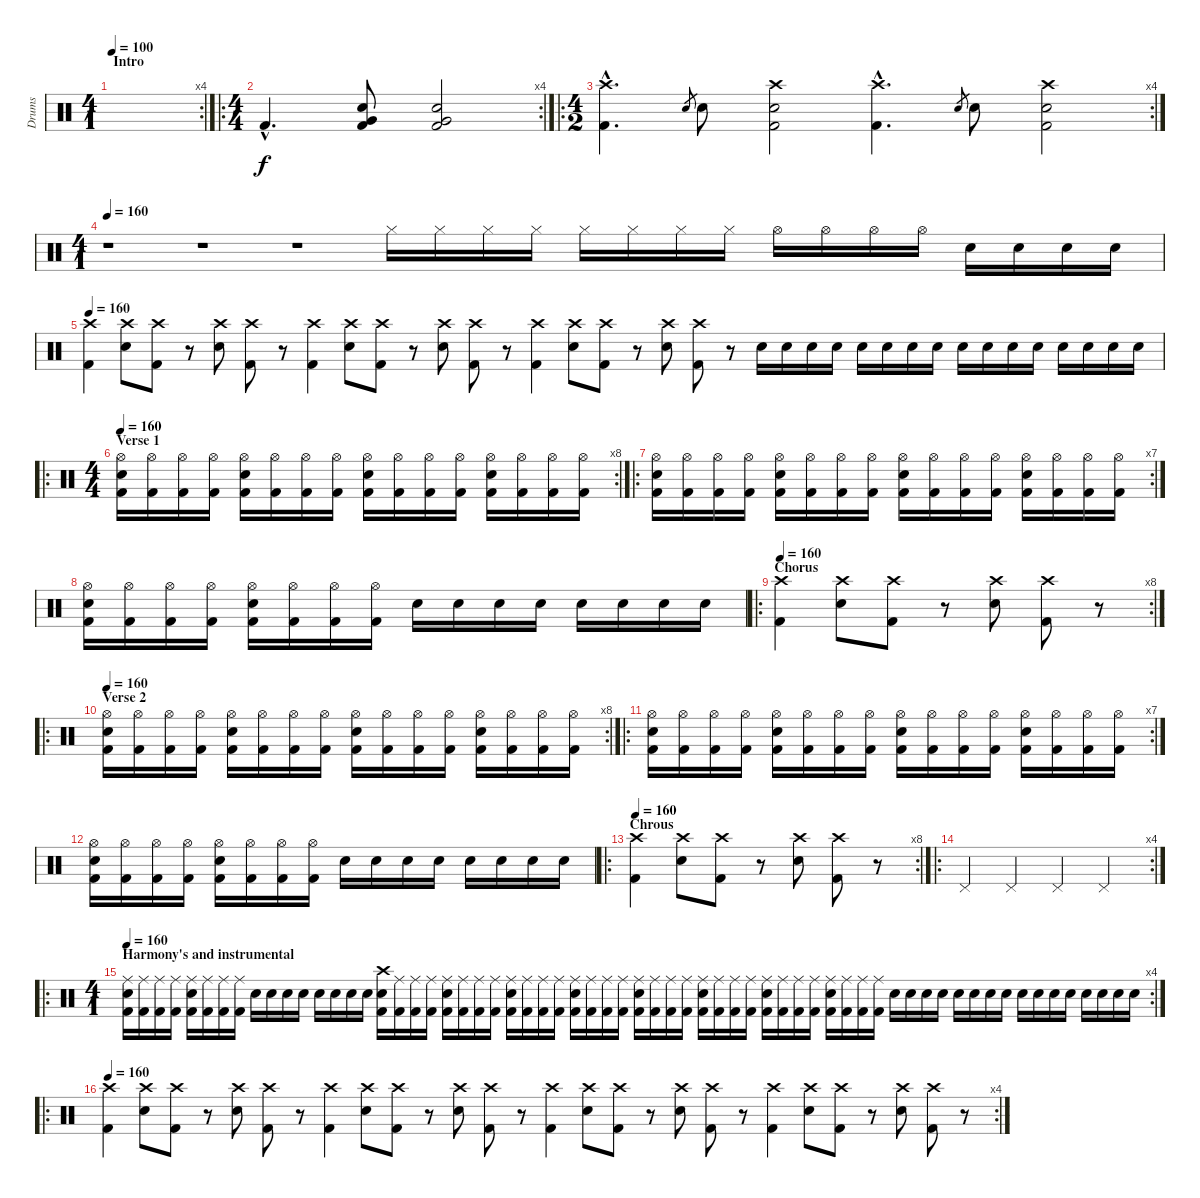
\track ("Drums" "Drums") {instrument percussion}
\staff {score}
\articulation defaults
\rc 4
\ts (4 1)
\section ("" "Intro")
\tempo 100
\clef neutral
\ks c
|
\ro
\rc 4
\ts (4 4)
"Kick (hit) 2"{hac}.4{d} ("Very Low Tom (hit)" "Electric Snare (hit)" "Kick (hit) 2").8 ("Very Low Tom (hit)" "Electric Snare (hit)" "Kick (hit) 2").2 |
\ro
\rc 4
\ts (4 2)
("Crash high (hit)"{hac} "Kick (hit) 2"{hac}).4{d} "Electric Snare (hit)".8{gr} "Electric Snare (hit)".8 ("Crash high (hit)" "Kick (hit) 2" "Electric Snare (hit)").2 ("Crash high (hit)"{hac} "Kick (hit) 2"{hac}).4{d} "Electric Snare (hit)".8{gr} "Electric Snare (hit)".8 ("Crash high (hit)" "Kick (hit) 2" "Electric Snare (hit)").2 |
\ts (4 1)
\tempo 160
r.1 r.1 r.1 "Hi-Hat (closed)".16 "Hi-Hat (closed)".16 "Hi-Hat (closed)".16 "Hi-Hat (closed)".16 "Hi-Hat (closed)".16 "Hi-Hat (closed)".16 "Hi-Hat (closed)".16 "Hi-Hat (closed)".16 "Hi-Hat (open)".16 "Hi-Hat (open)".16 "Hi-Hat (open)".16 "Hi-Hat (open)".16 "Electric Snare (hit)".16 "Electric Snare (hit)".16 "Electric Snare (hit)".16 "Electric Snare (hit)".16 |
\tempo 160
("Crash high (hit)" "Kick (hit) 2").4 ("Crash high (hit)" "Electric Snare (hit)").8 ("Crash high (hit)" "Kick (hit) 2").8 r.8 ("Crash high (hit)" "Electric Snare (hit)").8 ("Crash high (hit)" "Kick (hit) 2").8 r.8 ("Crash high (hit)" "Kick (hit) 2").4 ("Crash high (hit)" "Electric Snare (hit)").8 ("Crash high (hit)" "Kick (hit) 2").8 r.8 ("Crash high (hit)" "Electric Snare (hit)").8 ("Crash high (hit)" "Kick (hit) 2").8 r.8 ("Crash high (hit)" "Kick (hit) 2").4 ("Crash high (hit)" "Electric Snare (hit)").8 ("Crash high (hit)" "Kick (hit) 2").8 r.8 ("Crash high (hit)" "Electric Snare (hit)").8 ("Crash high (hit)" "Kick (hit) 2").8 r.8 "Electric Snare (hit)".16 "Electric Snare (hit)".16 "Electric Snare (hit)".16 "Electric Snare (hit)".16 "Electric Snare (hit)".16 "Electric Snare (hit)".16 "Electric Snare (hit)".16 "Electric Snare (hit)".16 "Electric Snare (hit)".16 "Electric Snare (hit)".16 "Electric Snare (hit)".16 "Electric Snare (hit)".16 "Electric Snare (hit)".16 "Electric Snare (hit)".16 "Electric Snare (hit)".16 "Electric Snare (hit)".16 |
\ro
\rc 8
\ts (4 4)
\section ("" "Verse 1")
\tempo 160
("Kick (hit) 2" "Hi-Hat (open)" "Electric Snare (hit)").16 ("Kick (hit) 2" "Hi-Hat (open)").16 ("Kick (hit) 2" "Hi-Hat (open)").16 ("Kick (hit) 2" "Hi-Hat (open)").16 ("Kick (hit) 2" "Hi-Hat (open)" "Electric Snare (hit)").16 ("Kick (hit) 2" "Hi-Hat (open)").16 ("Kick (hit) 2" "Hi-Hat (open)").16 ("Kick (hit) 2" "Hi-Hat (open)").16 ("Kick (hit) 2" "Hi-Hat (open)" "Electric Snare (hit)").16 ("Kick (hit) 2" "Hi-Hat (open)").16 ("Kick (hit) 2" "Hi-Hat (open)").16 ("Kick (hit) 2" "Hi-Hat (open)").16 ("Kick (hit) 2" "Hi-Hat (open)" "Electric Snare (hit)").16 ("Kick (hit) 2" "Hi-Hat (open)").16 ("Kick (hit) 2" "Hi-Hat (open)").16 ("Kick (hit) 2" "Hi-Hat (open)").16 |
\ro
\rc 7
("Kick (hit) 2" "Hi-Hat (open)" "Electric Snare (hit)").16 ("Kick (hit) 2" "Hi-Hat (open)").16 ("Kick (hit) 2" "Hi-Hat (open)").16 ("Kick (hit) 2" "Hi-Hat (open)").16 ("Kick (hit) 2" "Hi-Hat (open)" "Electric Snare (hit)").16 ("Kick (hit) 2" "Hi-Hat (open)").16 ("Kick (hit) 2" "Hi-Hat (open)").16 ("Kick (hit) 2" "Hi-Hat (open)").16 ("Kick (hit) 2" "Hi-Hat (open)" "Electric Snare (hit)").16 ("Kick (hit) 2" "Hi-Hat (open)").16 ("Kick (hit) 2" "Hi-Hat (open)").16 ("Kick (hit) 2" "Hi-Hat (open)").16 ("Kick (hit) 2" "Hi-Hat (open)" "Electric Snare (hit)").16 ("Kick (hit) 2" "Hi-Hat (open)").16 ("Kick (hit) 2" "Hi-Hat (open)").16 ("Kick (hit) 2" "Hi-Hat (open)").16 |
("Kick (hit) 2" "Hi-Hat (open)" "Electric Snare (hit)").16 ("Kick (hit) 2" "Hi-Hat (open)").16 ("Kick (hit) 2" "Hi-Hat (open)").16 ("Kick (hit) 2" "Hi-Hat (open)").16 ("Kick (hit) 2" "Hi-Hat (open)" "Electric Snare (hit)").16 ("Kick (hit) 2" "Hi-Hat (open)").16 ("Kick (hit) 2" "Hi-Hat (open)").16 ("Kick (hit) 2" "Hi-Hat (open)").16 "Electric Snare (hit)".16 "Electric Snare (hit)".16 "Electric Snare (hit)".16 "Electric Snare (hit)".16 "Electric Snare (hit)".16 "Electric Snare (hit)".16 "Electric Snare (hit)".16 "Electric Snare (hit)".16 |
\ro
\rc 8
\section ("" "Chorus ")
\tempo 160
("Crash high (hit)" "Kick (hit) 2").4 ("Crash high (hit)" "Electric Snare (hit)").8 ("Crash high (hit)" "Kick (hit) 2").8 r.8 ("Crash high (hit)" "Electric Snare (hit)").8 ("Crash high (hit)" "Kick (hit) 2").8 r.8 |
\ro
\rc 8
\section ("" "Verse 2")
\tempo 160
("Kick (hit) 2" "Hi-Hat (open)" "Electric Snare (hit)").16 ("Kick (hit) 2" "Hi-Hat (open)").16 ("Kick (hit) 2" "Hi-Hat (open)").16 ("Kick (hit) 2" "Hi-Hat (open)").16 ("Kick (hit) 2" "Hi-Hat (open)" "Electric Snare (hit)").16 ("Kick (hit) 2" "Hi-Hat (open)").16 ("Kick (hit) 2" "Hi-Hat (open)").16 ("Kick (hit) 2" "Hi-Hat (open)").16 ("Kick (hit) 2" "Hi-Hat (open)" "Electric Snare (hit)").16 ("Kick (hit) 2" "Hi-Hat (open)").16 ("Kick (hit) 2" "Hi-Hat (open)").16 ("Kick (hit) 2" "Hi-Hat (open)").16 ("Kick (hit) 2" "Hi-Hat (open)" "Electric Snare (hit)").16 ("Kick (hit) 2" "Hi-Hat (open)").16 ("Kick (hit) 2" "Hi-Hat (open)").16 ("Kick (hit) 2" "Hi-Hat (open)").16 |
\ro
\rc 7
("Kick (hit) 2" "Hi-Hat (open)" "Electric Snare (hit)").16 ("Kick (hit) 2" "Hi-Hat (open)").16 ("Kick (hit) 2" "Hi-Hat (open)").16 ("Kick (hit) 2" "Hi-Hat (open)").16 ("Kick (hit) 2" "Hi-Hat (open)" "Electric Snare (hit)").16 ("Kick (hit) 2" "Hi-Hat (open)").16 ("Kick (hit) 2" "Hi-Hat (open)").16 ("Kick (hit) 2" "Hi-Hat (open)").16 ("Kick (hit) 2" "Hi-Hat (open)" "Electric Snare (hit)").16 ("Kick (hit) 2" "Hi-Hat (open)").16 ("Kick (hit) 2" "Hi-Hat (open)").16 ("Kick (hit) 2" "Hi-Hat (open)").16 ("Kick (hit) 2" "Hi-Hat (open)" "Electric Snare (hit)").16 ("Kick (hit) 2" "Hi-Hat (open)").16 ("Kick (hit) 2" "Hi-Hat (open)").16 ("Kick (hit) 2" "Hi-Hat (open)").16 |
("Kick (hit) 2" "Hi-Hat (open)" "Electric Snare (hit)").16 ("Kick (hit) 2" "Hi-Hat (open)").16 ("Kick (hit) 2" "Hi-Hat (open)").16 ("Kick (hit) 2" "Hi-Hat (open)").16 ("Kick (hit) 2" "Hi-Hat (open)" "Electric Snare (hit)").16 ("Kick (hit) 2" "Hi-Hat (open)").16 ("Kick (hit) 2" "Hi-Hat (open)").16 ("Kick (hit) 2" "Hi-Hat (open)").16 "Electric Snare (hit)".16 "Electric Snare (hit)".16 "Electric Snare (hit)".16 "Electric Snare (hit)".16 "Electric Snare (hit)".16 "Electric Snare (hit)".16 "Electric Snare (hit)".16 "Electric Snare (hit)".16 |
\ro
\rc 8
\section ("" "Chrous")
\tempo 160
("Crash high (hit)" "Kick (hit) 2").4 ("Crash high (hit)" "Electric Snare (hit)").8 ("Crash high (hit)" "Kick (hit) 2").8 r.8 ("Crash high (hit)" "Electric Snare (hit)").8 ("Crash high (hit)" "Kick (hit) 2").8 r.8 |
\ro
\rc 4 "Pedal Hi-Hat (hit)".4 "Pedal Hi-Hat (hit)".4 "Pedal Hi-Hat (hit)".4 "Pedal Hi-Hat (hit)".4
|
\ro
\rc 4
\ts (4 1)
\section ("" "Harmony's and instrumental")
\tempo 160
("Kick (hit) 2" "Ride (middle)" "Electric Snare (hit)").16 ("Kick (hit) 2" "Ride (middle)").16 ("Kick (hit) 2" "Ride (middle)").16 ("Kick (hit) 2" "Ride (middle)").16 ("Kick (hit) 2" "Ride (middle)" "Electric Snare (hit)").16 ("Kick (hit) 2" "Ride (middle)").16 ("Kick (hit) 2" "Ride (middle)").16 ("Kick (hit) 2" "Ride (middle)").16 "Electric Snare (hit)".16 "Electric Snare (hit)".16 "Electric Snare (hit)".16 "Electric Snare (hit)".16 "Electric Snare (hit)".16 "Electric Snare (hit)".16 "Electric Snare (hit)".16 "Electric Snare (hit)".16 ("Crash high (hit)" "Kick (hit) 2" "Electric Snare (hit)").16 ("Ride (middle)" "Kick (hit) 2").16 ("Ride (middle)" "Kick (hit) 2").16 ("Ride (middle)" "Kick (hit) 2").16 ("Ride (middle)" "Kick (hit) 2" "Electric Snare (hit)").16 ("Ride (middle)" "Kick (hit) 2").16 ("Ride (middle)" "Kick (hit) 2").16 ("Ride (middle)" "Kick (hit) 2").16 ("Ride (middle)" "Kick (hit) 2" "Electric Snare (hit)").16 ("Ride (middle)" "Kick (hit) 2").16 ("Ride (middle)" "Kick (hit) 2").16 ("Ride (middle)" "Kick (hit) 2").16 ("Ride (middle)" "Kick (hit) 2" "Electric Snare (hit)").16 ("Ride (middle)" "Kick (hit) 2").16 ("Ride (middle)" "Kick (hit) 2").16 ("Ride (middle)" "Kick (hit) 2").16 ("Kick (hit) 2" "Ride (middle)" "Electric Snare (hit)").16 ("Kick (hit) 2" "Ride (middle)").16 ("Kick (hit) 2" "Ride (middle)").16 ("Kick (hit) 2" "Ride (middle)").16 ("Kick (hit) 2" "Ride (middle)" "Electric Snare (hit)").16 ("Kick (hit) 2" "Ride (middle)").16 ("Kick (hit) 2" "Ride (middle)").16 ("Kick (hit) 2" "Ride (middle)").16 ("Kick (hit) 2" "Ride (middle)" "Electric Snare (hit)").16 ("Kick (hit) 2" "Ride (middle)").16 ("Kick (hit) 2" "Ride (middle)").16 ("Kick (hit) 2" "Ride (middle)").16 ("Kick (hit) 2" "Ride (middle)" "Electric Snare (hit)").16 ("Kick (hit) 2" "Ride (middle)").16 ("Kick (hit) 2" "Ride (middle)").16 ("Kick (hit) 2" "Ride (middle)").16 "Electric Snare (hit)".16 "Electric Snare (hit)".16 "Electric Snare (hit)".16 "Electric Snare (hit)".16 "Electric Snare (hit)".16 "Electric Snare (hit)".16 "Electric Snare (hit)".16 "Electric Snare (hit)".16 "Electric Snare (hit)".16 "Electric Snare (hit)".16 "Electric Snare (hit)".16 "Electric Snare (hit)".16 "Electric Snare (hit)".16 "Electric Snare (hit)".16 "Electric Snare (hit)".16 "Electric Snare (hit)".16 |
\ro
\rc 4
\tempo 160
("Crash high (hit)" "Kick (hit) 2").4 ("Crash high (hit)" "Electric Snare (hit)").8 ("Crash high (hit)" "Kick (hit) 2").8 r.8 ("Crash high (hit)" "Electric Snare (hit)").8 ("Crash high (hit)" "Kick (hit) 2").8 r.8 ("Crash high (hit)" "Kick (hit) 2").4 ("Crash high (hit)" "Electric Snare (hit)").8 ("Crash high (hit)" "Kick (hit) 2").8 r.8 ("Crash high (hit)" "Electric Snare (hit)").8 ("Crash high (hit)" "Kick (hit) 2").8 r.8 ("Crash high (hit)" "Kick (hit) 2").4 ("Crash high (hit)" "Electric Snare (hit)").8 ("Crash high (hit)" "Kick (hit) 2").8 r.8 ("Crash high (hit)" "Electric Snare (hit)").8 ("Crash high (hit)" "Kick (hit) 2").8 r.8 ("Crash high (hit)" "Kick (hit) 2").4 ("Crash high (hit)" "Electric Snare (hit)").8 ("Crash high (hit)" "Kick (hit) 2").8 r.8 ("Crash high (hit)" "Electric Snare (hit)").8 ("Crash high (hit)" "Kick (hit) 2").8 r.8
